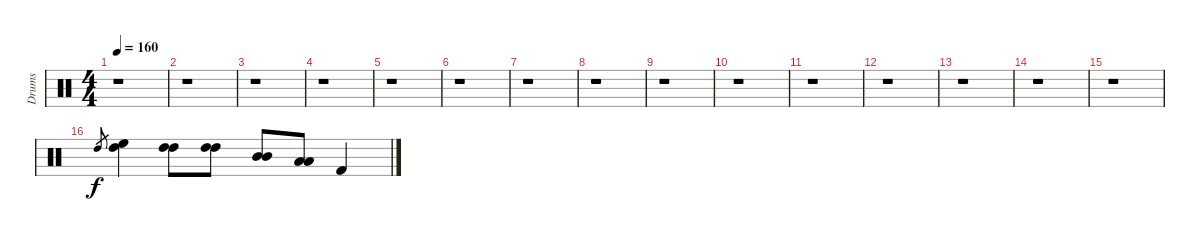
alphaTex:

\track ("Drums" "Drums") {instrument percussion}
\staff {score}
\articulation defaults
\ts (4 4)
\tempo 160
\clef neutral
\ks c
r.1{dy f} |
r.1 |
r.1 |
r.1 |
r.1 |
r.1 |
r.1 |
r.1 |
r.1 |
r.1 |
r.1 |
r.1 |
r.1 |
r.1 |
r.1 |
"High Tom (hit)".8{gr} ("High Floor Tom (hit)" "High Tom (hit)").4 ("High Tom (hit)" "High Tom (hit)").8 ("High Tom (hit)" "High Tom (hit)").8 ("Mid Tom (hit)" "Mid Tom (hit)").8 ("Low Tom (hit)" "Low Tom (hit)").8 "Kick (hit) 2".4
